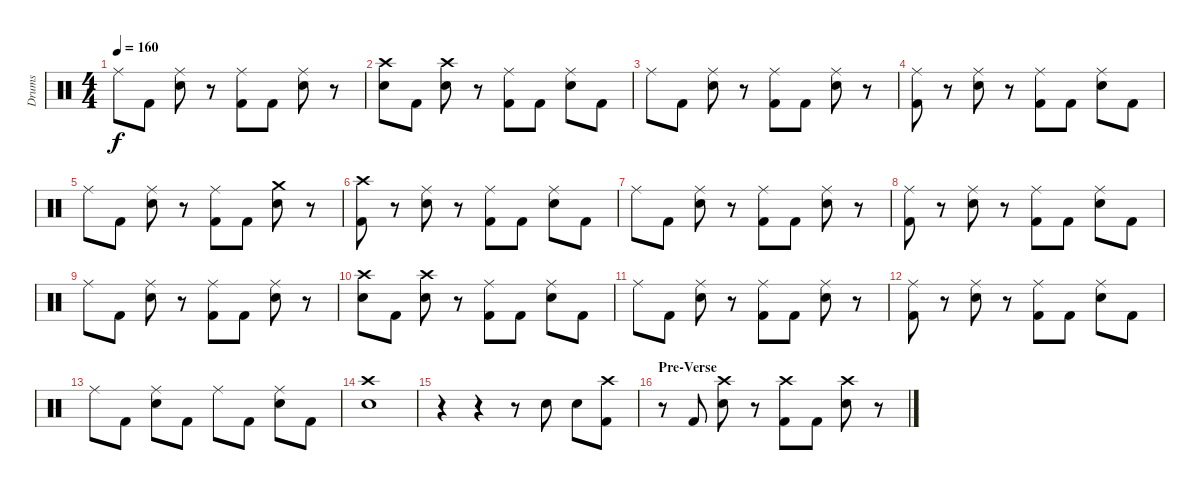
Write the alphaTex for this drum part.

\track ("Drums" "Drums") {instrument percussion}
\staff {score}
\articulation defaults
\ts (4 4)
\tempo 160
\clef neutral
\ks c "Ride (middle)".8{dy f} "Kick (hit) 2".8
("Ride (middle)" "Snare (hit) 2").8 r.8 ("Ride (middle)" "Kick (hit) 2").8 "Kick (hit) 2".8 ("Ride (middle)" "Snare (hit) 2").8 r.8 |
("Crash high (hit)" "Snare (hit) 2").8 "Kick (hit) 2".8 ("Crash high (hit)" "Snare (hit) 2").8 r.8 ("Ride (middle)" "Kick (hit) 2").8 "Kick (hit) 2".8 ("Ride (middle)" "Snare (hit) 2").8 "Kick (hit) 2".8 |
"Ride (middle)".8 "Kick (hit) 2".8 ("Ride (middle)" "Snare (hit) 2").8 r.8 ("Ride (middle)" "Kick (hit) 2").8 "Kick (hit) 2".8 ("Ride (middle)" "Snare (hit) 2").8 r.8 |
("Ride (middle)" "Kick (hit) 2").8 r.8 ("Ride (middle)" "Snare (hit) 2").8 r.8 ("Ride (middle)" "Kick (hit) 2").8 "Kick (hit) 2".8 ("Ride (middle)" "Snare (hit) 2").8 "Kick (hit) 2".8 |
"Ride (middle)".8 "Kick (hit) 2".8 ("Ride (middle)" "Snare (hit) 2").8 r.8 ("Ride (middle)" "Kick (hit) 2").8 "Kick (hit) 2".8 ("Crash medium (hit)" "Snare (hit) 2").8 r.8 |
("Crash high (hit)" "Kick (hit) 2").8 r.8 ("Ride (middle)" "Snare (hit) 2").8 r.8 ("Ride (middle)" "Kick (hit) 2").8 "Kick (hit) 2".8 ("Ride (middle)" "Snare (hit) 2").8 "Kick (hit) 2".8 |
"Ride (middle)".8 "Kick (hit) 2".8 ("Ride (middle)" "Snare (hit) 2").8 r.8 ("Ride (middle)" "Kick (hit) 2").8 "Kick (hit) 2".8 ("Ride (middle)" "Snare (hit) 2").8 r.8 |
("Ride (middle)" "Kick (hit) 2").8 r.8 ("Ride (middle)" "Snare (hit) 2").8 r.8 ("Ride (middle)" "Kick (hit) 2").8 "Kick (hit) 2".8 ("Ride (middle)" "Snare (hit) 2").8 "Kick (hit) 2".8 |
"Ride (middle)".8 "Kick (hit) 2".8 ("Ride (middle)" "Snare (hit) 2").8 r.8 ("Ride (middle)" "Kick (hit) 2").8 "Kick (hit) 2".8 ("Ride (middle)" "Snare (hit) 2").8 r.8 |
("Crash high (hit)" "Snare (hit) 2").8 "Kick (hit) 2".8 ("Crash high (hit)" "Snare (hit) 2").8 r.8 ("Ride (middle)" "Kick (hit) 2").8 "Kick (hit) 2".8 ("Ride (middle)" "Snare (hit) 2").8 "Kick (hit) 2".8 |
"Ride (middle)".8 "Kick (hit) 2".8 ("Ride (middle)" "Snare (hit) 2").8 r.8 ("Ride (middle)" "Kick (hit) 2").8 "Kick (hit) 2".8 ("Ride (middle)" "Snare (hit) 2").8 r.8 |
("Ride (middle)" "Kick (hit) 2").8 r.8 ("Ride (middle)" "Snare (hit) 2").8 r.8 ("Ride (middle)" "Kick (hit) 2").8 "Kick (hit) 2".8 ("Ride (middle)" "Snare (hit) 2").8 "Kick (hit) 2".8 |
"Ride (middle)".8 "Kick (hit) 2".8 ("Ride (middle)" "Snare (hit) 2").8 "Kick (hit) 2".8 "Ride (middle)".8 "Kick (hit) 2".8 ("Ride (middle)" "Snare (hit) 2").8 "Kick (hit) 2".8 |
("Crash high (hit)" "Snare (hit) 2").1 |
r.4 r.4 r.8 "Snare (hit) 2".8 "Snare (hit) 2".8 ("Crash high (hit)" "Kick (hit) 2").8 |
\section ("" "Pre-Verse")
r.8 "Kick (hit) 2".8 ("Crash high (hit)" "Snare (hit) 2").8 r.8 ("Crash high (hit)" "Kick (hit) 2").8 "Kick (hit) 2".8 ("Crash high (hit)" "Snare (hit) 2").8 r.8
